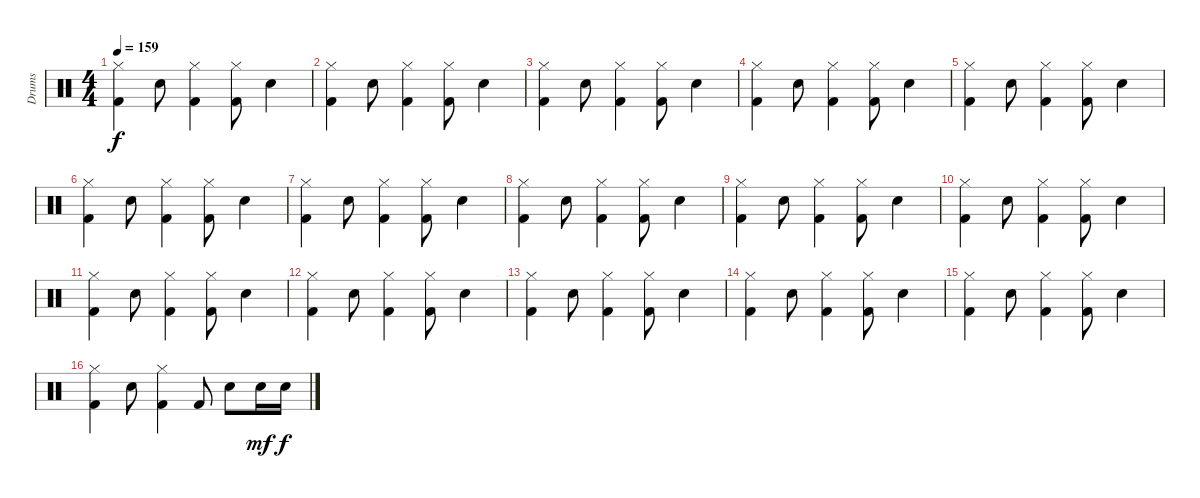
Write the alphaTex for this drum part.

\track ("Drums" "Drums") {instrument percussion}
\staff {score}
\articulation defaults
\ts (4 4)
\tempo 159
\clef neutral
\ks c
("Kick (hit) 2" "Hi-Hat (closed)").4{dy f} "Electric Snare (hit)".8 ("Kick (hit) 2" "Hi-Hat (closed)").4 ("Kick (hit) 2" "Hi-Hat (closed)").8 "Electric Snare (hit)".4 |
("Kick (hit) 2" "Hi-Hat (closed)").4 "Electric Snare (hit)".8 ("Kick (hit) 2" "Hi-Hat (closed)").4 ("Kick (hit) 2" "Hi-Hat (closed)").8 "Electric Snare (hit)".4 |
("Kick (hit) 2" "Hi-Hat (closed)").4 "Electric Snare (hit)".8 ("Kick (hit) 2" "Hi-Hat (closed)").4 ("Kick (hit) 2" "Hi-Hat (closed)").8 "Electric Snare (hit)".4 |
("Kick (hit) 2" "Hi-Hat (closed)").4 "Electric Snare (hit)".8 ("Kick (hit) 2" "Hi-Hat (closed)").4 ("Kick (hit) 2" "Hi-Hat (closed)").8 "Electric Snare (hit)".4 |
("Kick (hit) 2" "Hi-Hat (closed)").4 "Electric Snare (hit)".8 ("Kick (hit) 2" "Hi-Hat (closed)").4 ("Kick (hit) 2" "Hi-Hat (closed)").8 "Electric Snare (hit)".4 |
("Kick (hit) 2" "Hi-Hat (closed)").4 "Electric Snare (hit)".8 ("Kick (hit) 2" "Hi-Hat (closed)").4 ("Kick (hit) 2" "Hi-Hat (closed)").8 "Electric Snare (hit)".4 |
("Kick (hit) 2" "Hi-Hat (closed)").4 "Electric Snare (hit)".8 ("Kick (hit) 2" "Hi-Hat (closed)").4 ("Kick (hit) 2" "Hi-Hat (closed)").8 "Electric Snare (hit)".4 |
("Kick (hit) 2" "Hi-Hat (closed)").4 "Electric Snare (hit)".8 ("Kick (hit) 2" "Hi-Hat (closed)").4 ("Kick (hit) 2" "Hi-Hat (closed)").8 "Electric Snare (hit)".4 |
("Kick (hit) 2" "Hi-Hat (closed)").4 "Electric Snare (hit)".8 ("Kick (hit) 2" "Hi-Hat (closed)").4 ("Kick (hit) 2" "Hi-Hat (closed)").8 "Electric Snare (hit)".4 |
("Kick (hit) 2" "Hi-Hat (closed)").4 "Electric Snare (hit)".8 ("Kick (hit) 2" "Hi-Hat (closed)").4 ("Kick (hit) 2" "Hi-Hat (closed)").8 "Electric Snare (hit)".4 |
("Kick (hit) 2" "Hi-Hat (closed)").4 "Electric Snare (hit)".8 ("Kick (hit) 2" "Hi-Hat (closed)").4 ("Kick (hit) 2" "Hi-Hat (closed)").8 "Electric Snare (hit)".4 |
("Kick (hit) 2" "Hi-Hat (closed)").4 "Electric Snare (hit)".8 ("Kick (hit) 2" "Hi-Hat (closed)").4 ("Kick (hit) 2" "Hi-Hat (closed)").8 "Electric Snare (hit)".4 |
("Kick (hit) 2" "Hi-Hat (closed)").4 "Electric Snare (hit)".8 ("Kick (hit) 2" "Hi-Hat (closed)").4 ("Kick (hit) 2" "Hi-Hat (closed)").8 "Electric Snare (hit)".4 |
("Kick (hit) 2" "Hi-Hat (closed)").4 "Electric Snare (hit)".8 ("Kick (hit) 2" "Hi-Hat (closed)").4 ("Kick (hit) 2" "Hi-Hat (closed)").8 "Electric Snare (hit)".4 |
("Kick (hit) 2" "Hi-Hat (closed)").4 "Electric Snare (hit)".8 ("Kick (hit) 2" "Hi-Hat (closed)").4 ("Kick (hit) 2" "Hi-Hat (closed)").8 "Electric Snare (hit)".4 |
("Kick (hit) 2" "Hi-Hat (closed)").4 "Electric Snare (hit)".8 ("Kick (hit) 2" "Hi-Hat (closed)").4 "Kick (hit) 2".8 "Electric Snare (hit)".8 "Electric Snare (hit)".16{dy mf} "Electric Snare (hit)".16{dy f}
